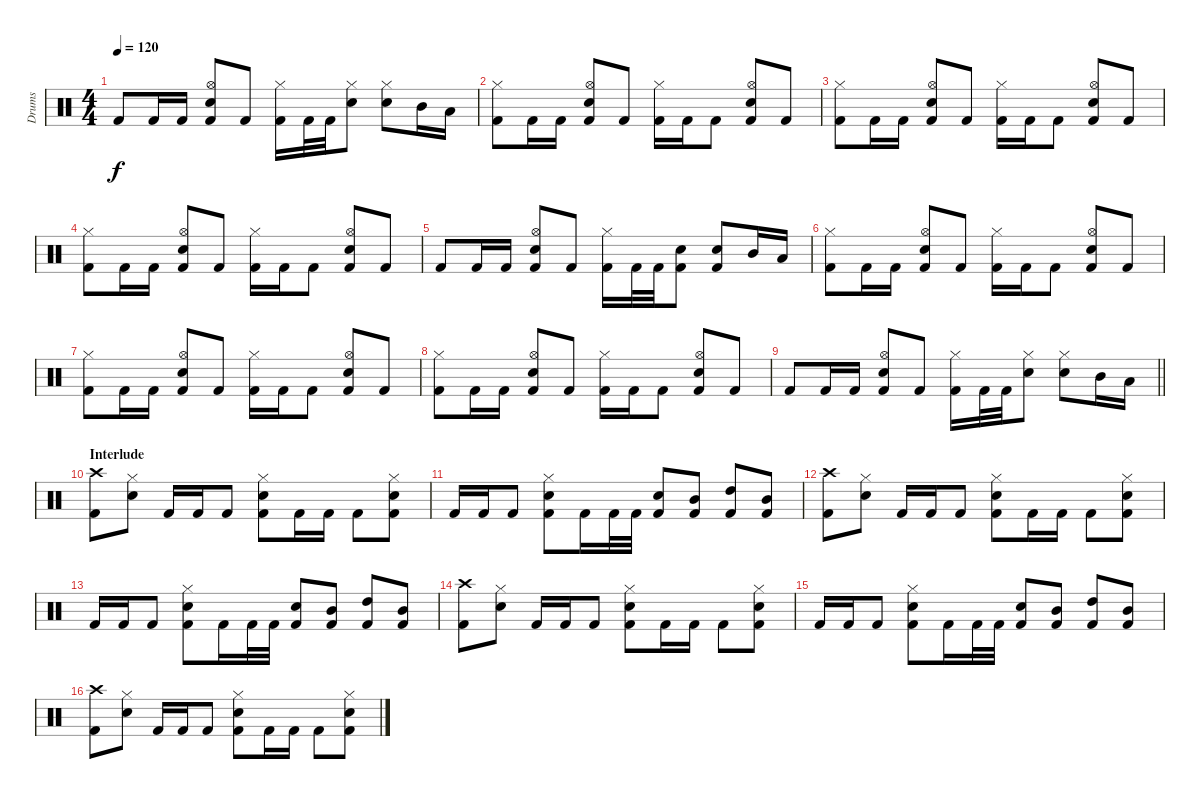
\track ("Drums" "Drums") {instrument percussion}
\staff {score}
\articulation defaults
\ts (4 4)
\tempo 120
\clef neutral
\ks c "Kick (hit) 2".8{dy f} "Kick (hit) 2".16 "Kick (hit) 2".16
("Hi-Hat (open)" "Electric Snare (hit)" "Kick (hit) 2").8 "Kick (hit) 2".8 ("Hi-Hat (closed)" "Kick (hit) 2").16 "Kick (hit) 2".32 "Kick (hit) 2".32 ("Hi-Hat (closed)" "Electric Snare (hit)").8 ("Hi-Hat (closed)" "Electric Snare (hit)").8 "Mid Tom (hit)".16 "Low Tom (hit)".16 |
("Hi-Hat (closed)" "Kick (hit) 2").8 "Kick (hit) 2".16 "Kick (hit) 2".16 ("Hi-Hat (open)" "Electric Snare (hit)" "Kick (hit) 2").8 "Kick (hit) 2".8 ("Hi-Hat (closed)" "Kick (hit) 2").16 "Kick (hit) 2".16 "Kick (hit) 2".8 ("Hi-Hat (open)" "Electric Snare (hit)" "Kick (hit) 2").8 "Kick (hit) 2".8 |
("Hi-Hat (closed)" "Kick (hit) 2").8 "Kick (hit) 2".16 "Kick (hit) 2".16 ("Hi-Hat (open)" "Electric Snare (hit)" "Kick (hit) 2").8 "Kick (hit) 2".8 ("Hi-Hat (closed)" "Kick (hit) 2").16 "Kick (hit) 2".16 "Kick (hit) 2".8 ("Hi-Hat (open)" "Electric Snare (hit)" "Kick (hit) 2").8 "Kick (hit) 2".8 |
("Hi-Hat (closed)" "Kick (hit) 2").8 "Kick (hit) 2".16 "Kick (hit) 2".16 ("Hi-Hat (open)" "Electric Snare (hit)" "Kick (hit) 2").8 "Kick (hit) 2".8 ("Hi-Hat (closed)" "Kick (hit) 2").16 "Kick (hit) 2".16 "Kick (hit) 2".8 ("Hi-Hat (open)" "Electric Snare (hit)" "Kick (hit) 2").8 "Kick (hit) 2".8 |
"Kick (hit) 2".8 "Kick (hit) 2".16 "Kick (hit) 2".16 ("Hi-Hat (open)" "Electric Snare (hit)" "Kick (hit) 2").8 "Kick (hit) 2".8 ("Hi-Hat (closed)" "Kick (hit) 2").16 "Kick (hit) 2".32 "Kick (hit) 2".32 ("Electric Snare (hit)" "Kick (hit) 2").8 ("Electric Snare (hit)" "Kick (hit) 2").8 "Mid Tom (hit)".16 "Low Tom (hit)".16 |
("Hi-Hat (closed)" "Kick (hit) 2").8 "Kick (hit) 2".16 "Kick (hit) 2".16 ("Hi-Hat (open)" "Electric Snare (hit)" "Kick (hit) 2").8 "Kick (hit) 2".8 ("Hi-Hat (closed)" "Kick (hit) 2").16 "Kick (hit) 2".16 "Kick (hit) 2".8 ("Hi-Hat (open)" "Electric Snare (hit)" "Kick (hit) 2").8 "Kick (hit) 2".8 |
("Hi-Hat (closed)" "Kick (hit) 2").8 "Kick (hit) 2".16 "Kick (hit) 2".16 ("Hi-Hat (open)" "Electric Snare (hit)" "Kick (hit) 2").8 "Kick (hit) 2".8 ("Hi-Hat (closed)" "Kick (hit) 2").16 "Kick (hit) 2".16 "Kick (hit) 2".8 ("Hi-Hat (open)" "Electric Snare (hit)" "Kick (hit) 2").8 "Kick (hit) 2".8 |
("Hi-Hat (closed)" "Kick (hit) 2").8 "Kick (hit) 2".16 "Kick (hit) 2".16 ("Hi-Hat (open)" "Electric Snare (hit)" "Kick (hit) 2").8 "Kick (hit) 2".8 ("Hi-Hat (closed)" "Kick (hit) 2").16 "Kick (hit) 2".16 "Kick (hit) 2".8 ("Hi-Hat (open)" "Electric Snare (hit)" "Kick (hit) 2").8 "Kick (hit) 2".8 |
\barLineRight lightlight "Kick (hit) 2".8 "Kick (hit) 2".16 "Kick (hit) 2".16
("Hi-Hat (open)" "Electric Snare (hit)" "Kick (hit) 2").8 "Kick (hit) 2".8 ("Hi-Hat (closed)" "Kick (hit) 2").16 "Kick (hit) 2".32 "Kick (hit) 2".32 ("Hi-Hat (closed)" "Electric Snare (hit)").8 ("Hi-Hat (closed)" "Electric Snare (hit)").8 "Mid Tom (hit)".16 "Low Tom (hit)".16 |
\section ("" "Interlude")
("Crash high (hit)" "Kick (hit) 2").8 ("Hi-Hat (closed)" "Electric Snare (hit)").8 "Kick (hit) 2".16 "Kick (hit) 2".16 "Kick (hit) 2".8 ("Electric Snare (hit)" "Hi-Hat (closed)" "Kick (hit) 2").8 "Kick (hit) 2".16 "Kick (hit) 2".16 "Kick (hit) 2".8 ("Electric Snare (hit)" "Hi-Hat (closed)" "Kick (hit) 2").8 |
"Kick (hit) 2".16 "Kick (hit) 2".16 "Kick (hit) 2".8 ("Hi-Hat (closed)" "Electric Snare (hit)" "Kick (hit) 2").8 "Kick (hit) 2".16 "Kick (hit) 2".32 "Kick (hit) 2".32 ("Electric Snare (hit)" "Kick (hit) 2").8 ("Mid Tom (hit)" "Kick (hit) 2").8 ("High Tom (hit)" "Kick (hit) 2").8 ("Mid Tom (hit)" "Kick (hit) 2").8 |
("Crash high (hit)" "Kick (hit) 2").8 ("Hi-Hat (closed)" "Electric Snare (hit)").8 "Kick (hit) 2".16 "Kick (hit) 2".16 "Kick (hit) 2".8 ("Electric Snare (hit)" "Hi-Hat (closed)" "Kick (hit) 2").8 "Kick (hit) 2".16 "Kick (hit) 2".16 "Kick (hit) 2".8 ("Electric Snare (hit)" "Hi-Hat (closed)" "Kick (hit) 2").8 |
"Kick (hit) 2".16 "Kick (hit) 2".16 "Kick (hit) 2".8 ("Hi-Hat (closed)" "Electric Snare (hit)" "Kick (hit) 2").8 "Kick (hit) 2".16 "Kick (hit) 2".32 "Kick (hit) 2".32 ("Electric Snare (hit)" "Kick (hit) 2").8 ("Mid Tom (hit)" "Kick (hit) 2").8 ("High Tom (hit)" "Kick (hit) 2").8 ("Mid Tom (hit)" "Kick (hit) 2").8 |
("Crash high (hit)" "Kick (hit) 2").8 ("Hi-Hat (closed)" "Electric Snare (hit)").8 "Kick (hit) 2".16 "Kick (hit) 2".16 "Kick (hit) 2".8 ("Electric Snare (hit)" "Hi-Hat (closed)" "Kick (hit) 2").8 "Kick (hit) 2".16 "Kick (hit) 2".16 "Kick (hit) 2".8 ("Electric Snare (hit)" "Hi-Hat (closed)" "Kick (hit) 2").8 |
"Kick (hit) 2".16 "Kick (hit) 2".16 "Kick (hit) 2".8 ("Hi-Hat (closed)" "Electric Snare (hit)" "Kick (hit) 2").8 "Kick (hit) 2".16 "Kick (hit) 2".32 "Kick (hit) 2".32 ("Electric Snare (hit)" "Kick (hit) 2").8 ("Mid Tom (hit)" "Kick (hit) 2").8 ("High Tom (hit)" "Kick (hit) 2").8 ("Mid Tom (hit)" "Kick (hit) 2").8 |
("Crash high (hit)" "Kick (hit) 2").8 ("Hi-Hat (closed)" "Electric Snare (hit)").8 "Kick (hit) 2".16 "Kick (hit) 2".16 "Kick (hit) 2".8 ("Electric Snare (hit)" "Hi-Hat (closed)" "Kick (hit) 2").8 "Kick (hit) 2".16 "Kick (hit) 2".16 "Kick (hit) 2".8 ("Electric Snare (hit)" "Hi-Hat (closed)" "Kick (hit) 2").8
